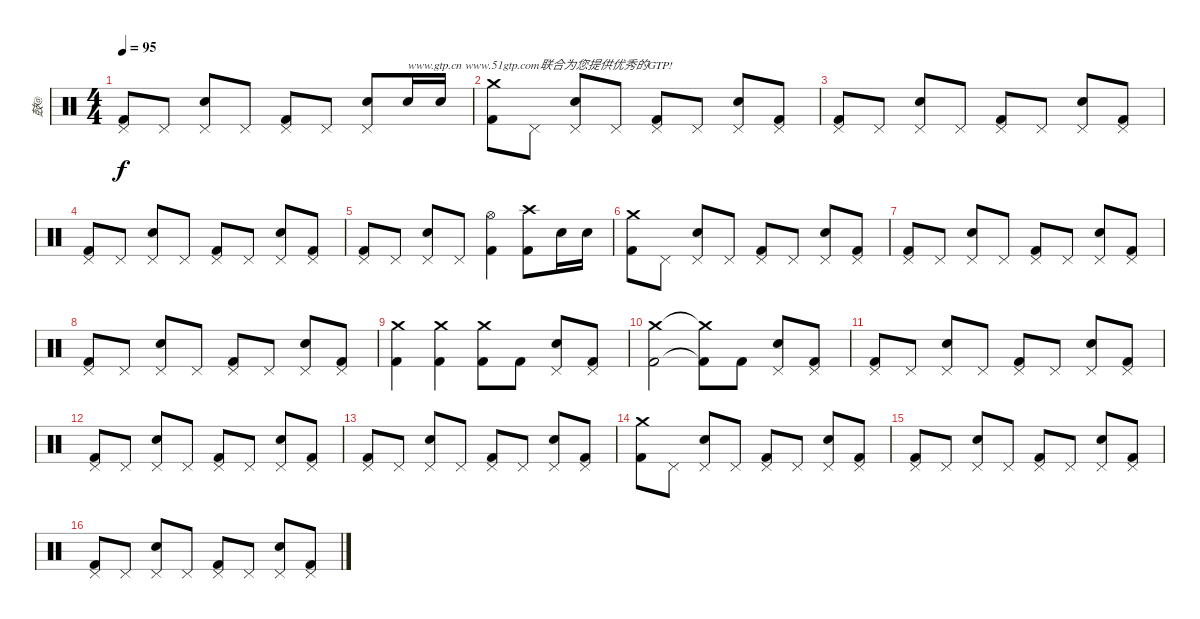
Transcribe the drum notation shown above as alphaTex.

\track ("鼓@" "鼓@") {instrument percussion}
\staff {score}
\articulation defaults
\ts (4 4)
\tempo 95
\clef neutral
\ks c
("Pedal Hi-Hat (hit)" "Kick (hit) 2").8{dy f} "Pedal Hi-Hat (hit)".8 ("Pedal Hi-Hat (hit)" "Electric Snare (hit)").8 "Pedal Hi-Hat (hit)".8 ("Pedal Hi-Hat (hit)" "Kick (hit) 2").8 "Pedal Hi-Hat (hit)".8 ("Pedal Hi-Hat (hit)" "Electric Snare (hit)").8 "Electric Snare (hit)".16{txt "www.gtp.cn www.51gtp.com联合为您提供优秀的GTP!"} "Electric Snare (hit)".16 |
("Crash medium (hit)" "Kick (hit) 2").8 "Pedal Hi-Hat (hit)".8 ("Pedal Hi-Hat (hit)" "Electric Snare (hit)").8 "Pedal Hi-Hat (hit)".8 ("Pedal Hi-Hat (hit)" "Kick (hit) 2").8 "Pedal Hi-Hat (hit)".8 ("Pedal Hi-Hat (hit)" "Electric Snare (hit)").8 ("Pedal Hi-Hat (hit)" "Kick (hit) 2").8 |
("Pedal Hi-Hat (hit)" "Kick (hit) 2").8 "Pedal Hi-Hat (hit)".8 ("Pedal Hi-Hat (hit)" "Electric Snare (hit)").8 "Pedal Hi-Hat (hit)".8 ("Pedal Hi-Hat (hit)" "Kick (hit) 2").8 "Pedal Hi-Hat (hit)".8 ("Pedal Hi-Hat (hit)" "Electric Snare (hit)").8 ("Pedal Hi-Hat (hit)" "Kick (hit) 2").8 |
("Pedal Hi-Hat (hit)" "Kick (hit) 2").8 "Pedal Hi-Hat (hit)".8 ("Pedal Hi-Hat (hit)" "Electric Snare (hit)").8 "Pedal Hi-Hat (hit)".8 ("Pedal Hi-Hat (hit)" "Kick (hit) 2").8 "Pedal Hi-Hat (hit)".8 ("Pedal Hi-Hat (hit)" "Electric Snare (hit)").8 ("Pedal Hi-Hat (hit)" "Kick (hit) 2").8 |
("Pedal Hi-Hat (hit)" "Kick (hit) 2").8 "Pedal Hi-Hat (hit)".8 ("Pedal Hi-Hat (hit)" "Electric Snare (hit)").8 "Pedal Hi-Hat (hit)".8 ("Hi-Hat (open)" "Kick (hit) 2").4 ("Crash high (hit)" "Kick (hit) 2").8 "Electric Snare (hit)".16 "Electric Snare (hit)".16 |
("Crash medium (hit)" "Kick (hit) 2").8 "Pedal Hi-Hat (hit)".8 ("Pedal Hi-Hat (hit)" "Electric Snare (hit)").8 "Pedal Hi-Hat (hit)".8 ("Pedal Hi-Hat (hit)" "Kick (hit) 2").8 "Pedal Hi-Hat (hit)".8 ("Pedal Hi-Hat (hit)" "Electric Snare (hit)").8 ("Pedal Hi-Hat (hit)" "Kick (hit) 2").8 |
("Pedal Hi-Hat (hit)" "Kick (hit) 2").8 "Pedal Hi-Hat (hit)".8 ("Pedal Hi-Hat (hit)" "Electric Snare (hit)").8 "Pedal Hi-Hat (hit)".8 ("Pedal Hi-Hat (hit)" "Kick (hit) 2").8 "Pedal Hi-Hat (hit)".8 ("Pedal Hi-Hat (hit)" "Electric Snare (hit)").8 ("Pedal Hi-Hat (hit)" "Kick (hit) 2").8 |
("Pedal Hi-Hat (hit)" "Kick (hit) 2").8 "Pedal Hi-Hat (hit)".8 ("Pedal Hi-Hat (hit)" "Electric Snare (hit)").8 "Pedal Hi-Hat (hit)".8 ("Pedal Hi-Hat (hit)" "Kick (hit) 2").8 "Pedal Hi-Hat (hit)".8 ("Pedal Hi-Hat (hit)" "Electric Snare (hit)").8 ("Pedal Hi-Hat (hit)" "Kick (hit) 2").8 |
("Crash medium (hit)" "Kick (hit) 2").4 ("Crash medium (hit)" "Kick (hit) 2").4 ("Crash medium (hit)" "Kick (hit) 2").8 "Kick (hit) 2".8 ("Pedal Hi-Hat (hit)" "Electric Snare (hit)").8 ("Pedal Hi-Hat (hit)" "Kick (hit) 2").8 |
("Crash medium (hit)" "Kick (hit) 2").2 ("Crash medium (hit)"{t} "Kick (hit) 2"{t}).8 "Kick (hit) 2".8 ("Pedal Hi-Hat (hit)" "Electric Snare (hit)").8 ("Pedal Hi-Hat (hit)" "Kick (hit) 2").8 |
("Pedal Hi-Hat (hit)" "Kick (hit) 2").8 "Pedal Hi-Hat (hit)".8 ("Pedal Hi-Hat (hit)" "Electric Snare (hit)").8 "Pedal Hi-Hat (hit)".8 ("Pedal Hi-Hat (hit)" "Kick (hit) 2").8 "Pedal Hi-Hat (hit)".8 ("Pedal Hi-Hat (hit)" "Electric Snare (hit)").8 ("Pedal Hi-Hat (hit)" "Kick (hit) 2").8 |
("Pedal Hi-Hat (hit)" "Kick (hit) 2").8 "Pedal Hi-Hat (hit)".8 ("Pedal Hi-Hat (hit)" "Electric Snare (hit)").8 "Pedal Hi-Hat (hit)".8 ("Pedal Hi-Hat (hit)" "Kick (hit) 2").8 "Pedal Hi-Hat (hit)".8 ("Pedal Hi-Hat (hit)" "Electric Snare (hit)").8 ("Pedal Hi-Hat (hit)" "Kick (hit) 2").8 |
("Pedal Hi-Hat (hit)" "Kick (hit) 2").8 "Pedal Hi-Hat (hit)".8 ("Pedal Hi-Hat (hit)" "Electric Snare (hit)").8 "Pedal Hi-Hat (hit)".8 ("Pedal Hi-Hat (hit)" "Kick (hit) 2").8 "Pedal Hi-Hat (hit)".8 ("Pedal Hi-Hat (hit)" "Electric Snare (hit)").8 ("Pedal Hi-Hat (hit)" "Kick (hit) 2").8 |
("Crash medium (hit)" "Kick (hit) 2").8 "Pedal Hi-Hat (hit)".8 ("Pedal Hi-Hat (hit)" "Electric Snare (hit)").8 "Pedal Hi-Hat (hit)".8 ("Pedal Hi-Hat (hit)" "Kick (hit) 2").8 "Pedal Hi-Hat (hit)".8 ("Pedal Hi-Hat (hit)" "Electric Snare (hit)").8 ("Pedal Hi-Hat (hit)" "Kick (hit) 2").8 |
("Pedal Hi-Hat (hit)" "Kick (hit) 2").8 "Pedal Hi-Hat (hit)".8 ("Pedal Hi-Hat (hit)" "Electric Snare (hit)").8 "Pedal Hi-Hat (hit)".8 ("Pedal Hi-Hat (hit)" "Kick (hit) 2").8 "Pedal Hi-Hat (hit)".8 ("Pedal Hi-Hat (hit)" "Electric Snare (hit)").8 ("Pedal Hi-Hat (hit)" "Kick (hit) 2").8 |
("Pedal Hi-Hat (hit)" "Kick (hit) 2").8 "Pedal Hi-Hat (hit)".8 ("Pedal Hi-Hat (hit)" "Electric Snare (hit)").8 "Pedal Hi-Hat (hit)".8 ("Pedal Hi-Hat (hit)" "Kick (hit) 2").8 "Pedal Hi-Hat (hit)".8 ("Pedal Hi-Hat (hit)" "Electric Snare (hit)").8 ("Pedal Hi-Hat (hit)" "Kick (hit) 2").8
